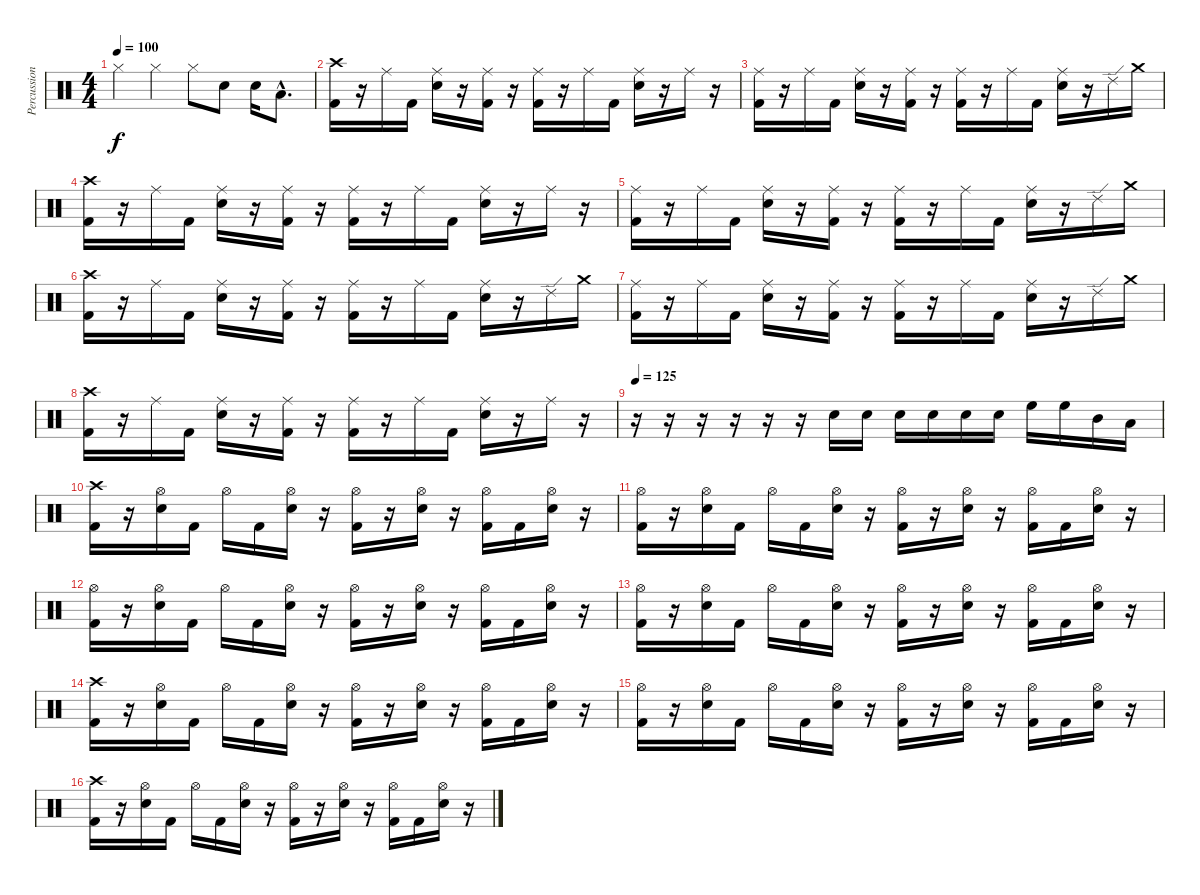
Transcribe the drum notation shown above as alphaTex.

\track ("Percussion" "Percussion") {instrument percussion}
\staff {score}
\articulation defaults
\ts (4 4)
\tempo 100
\clef neutral
\ks c "Hi-Hat (closed)".4{dy f} "Hi-Hat (closed)".4 "Hi-Hat (closed)".8 "Snare (hit) 2".8 "Snare (hit) 2".16 "Low Tom (hit)"{hac}.8{d}
|
("Kick (hit) 2" "Crash high (hit)").16 r.16 "Ride (middle)".16 "Kick (hit) 2".16 ("Snare (hit) 2" "Ride (middle)").16 r.16 ("Kick (hit) 2" "Ride (middle)").16 r.16 ("Kick (hit) 2" "Ride (middle)").16 r.16 "Ride (middle)".16 "Kick (hit) 2".16 ("Snare (hit) 2" "Ride (middle)").16 r.16 "Ride (middle)".16 r.16 |
("Kick (hit) 2" "Ride (middle)").16 r.16 "Ride (middle)".16 "Kick (hit) 2".16 ("Snare (hit) 2" "Ride (middle)").16 r.16 ("Kick (hit) 2" "Ride (middle)").16 r.16 ("Kick (hit) 2" "Ride (middle)").16 r.16 "Ride (middle)".16 "Kick (hit) 2".16 ("Snare (hit) 2" "Ride (middle)").16 r.16 "Ride (edge) 2".16 "Crash medium (hit)".16 |
("Kick (hit) 2" "Crash high (hit)").16 r.16 "Ride (middle)".16 "Kick (hit) 2".16 ("Snare (hit) 2" "Ride (middle)").16 r.16 ("Kick (hit) 2" "Ride (middle)").16 r.16 ("Kick (hit) 2" "Ride (middle)").16 r.16 "Ride (middle)".16 "Kick (hit) 2".16 ("Snare (hit) 2" "Ride (middle)").16 r.16 "Ride (middle)".16 r.16 |
("Kick (hit) 2" "Ride (middle)").16 r.16 "Ride (middle)".16 "Kick (hit) 2".16 ("Snare (hit) 2" "Ride (middle)").16 r.16 ("Kick (hit) 2" "Ride (middle)").16 r.16 ("Kick (hit) 2" "Ride (middle)").16 r.16 "Ride (middle)".16 "Kick (hit) 2".16 ("Snare (hit) 2" "Ride (middle)").16 r.16 "Ride (edge) 2".16 "Crash medium (hit)".16 |
("Kick (hit) 2" "Crash high (hit)").16 r.16 "Ride (middle)".16 "Kick (hit) 2".16 ("Snare (hit) 2" "Ride (middle)").16 r.16 ("Kick (hit) 2" "Ride (middle)").16 r.16 ("Kick (hit) 2" "Ride (middle)").16 r.16 "Ride (middle)".16 "Kick (hit) 2".16 ("Snare (hit) 2" "Ride (middle)").16 r.16 "Ride (edge) 2".16 "Crash medium (hit)".16 |
("Kick (hit) 2" "Ride (middle)").16 r.16 "Ride (middle)".16 "Kick (hit) 2".16 ("Snare (hit) 2" "Ride (middle)").16 r.16 ("Kick (hit) 2" "Ride (middle)").16 r.16 ("Kick (hit) 2" "Ride (middle)").16 r.16 "Ride (middle)".16 "Kick (hit) 2".16 ("Snare (hit) 2" "Ride (middle)").16 r.16 "Ride (edge) 2".16 "Crash medium (hit)".16 |
("Kick (hit) 2" "Crash high (hit)").16 r.16 "Ride (middle)".16 "Kick (hit) 2".16 ("Snare (hit) 2" "Ride (middle)").16 r.16 ("Kick (hit) 2" "Ride (middle)").16 r.16 ("Kick (hit) 2" "Ride (middle)").16 r.16 "Ride (middle)".16 "Kick (hit) 2".16 ("Snare (hit) 2" "Ride (middle)").16 r.16 "Ride (middle)".16 r.16 |
\tempo 125
r.16 r.16 r.16 r.16 r.16 r.16 "Snare (hit) 2".16 "Snare (hit) 2".16 "Snare (hit) 2".16 "Snare (hit) 2".16 "Snare (hit) 2".16 "Snare (hit) 2".16 "High Floor Tom (hit)".16 "High Floor Tom (hit)".16 "Mid Tom (hit)".16 "Low Tom (hit)".16 |
("Kick (hit) 2" "Crash high (hit)").16 r.16 ("Snare (hit) 2" "Hi-Hat (open)").16 "Kick (hit) 2".16 "Hi-Hat (open)".16 "Kick (hit) 2".16 ("Snare (hit) 2" "Hi-Hat (open)").16 r.16 ("Kick (hit) 2" "Hi-Hat (open)").16 r.16 ("Snare (hit) 2" "Hi-Hat (open)").16 r.16 ("Kick (hit) 2" "Hi-Hat (open)").16 "Kick (hit) 2".16 ("Snare (hit) 2" "Hi-Hat (open)").16 r.16 |
("Kick (hit) 2" "Hi-Hat (open)").16 r.16 ("Snare (hit) 2" "Hi-Hat (open)").16 "Kick (hit) 2".16 "Hi-Hat (open)".16 "Kick (hit) 2".16 ("Snare (hit) 2" "Hi-Hat (open)").16 r.16 ("Kick (hit) 2" "Hi-Hat (open)").16 r.16 ("Snare (hit) 2" "Hi-Hat (open)").16 r.16 ("Kick (hit) 2" "Hi-Hat (open)").16 "Kick (hit) 2".16 ("Snare (hit) 2" "Hi-Hat (open)").16 r.16 |
("Kick (hit) 2" "Hi-Hat (open)").16 r.16 ("Snare (hit) 2" "Hi-Hat (open)").16 "Kick (hit) 2".16 "Hi-Hat (open)".16 "Kick (hit) 2".16 ("Snare (hit) 2" "Hi-Hat (open)").16 r.16 ("Kick (hit) 2" "Hi-Hat (open)").16 r.16 ("Snare (hit) 2" "Hi-Hat (open)").16 r.16 ("Kick (hit) 2" "Hi-Hat (open)").16 "Kick (hit) 2".16 ("Snare (hit) 2" "Hi-Hat (open)").16 r.16 |
("Kick (hit) 2" "Hi-Hat (open)").16 r.16 ("Snare (hit) 2" "Hi-Hat (open)").16 "Kick (hit) 2".16 "Hi-Hat (open)".16 "Kick (hit) 2".16 ("Snare (hit) 2" "Hi-Hat (open)").16 r.16 ("Kick (hit) 2" "Hi-Hat (open)").16 r.16 ("Snare (hit) 2" "Hi-Hat (open)").16 r.16 ("Kick (hit) 2" "Hi-Hat (open)").16 "Kick (hit) 2".16 ("Snare (hit) 2" "Hi-Hat (open)").16 r.16 |
("Kick (hit) 2" "Crash high (hit)").16 r.16 ("Snare (hit) 2" "Hi-Hat (open)").16 "Kick (hit) 2".16 "Hi-Hat (open)".16 "Kick (hit) 2".16 ("Snare (hit) 2" "Hi-Hat (open)").16 r.16 ("Kick (hit) 2" "Hi-Hat (open)").16 r.16 ("Snare (hit) 2" "Hi-Hat (open)").16 r.16 ("Kick (hit) 2" "Hi-Hat (open)").16 "Kick (hit) 2".16 ("Snare (hit) 2" "Hi-Hat (open)").16 r.16 |
("Kick (hit) 2" "Hi-Hat (open)").16 r.16 ("Snare (hit) 2" "Hi-Hat (open)").16 "Kick (hit) 2".16 "Hi-Hat (open)".16 "Kick (hit) 2".16 ("Snare (hit) 2" "Hi-Hat (open)").16 r.16 ("Kick (hit) 2" "Hi-Hat (open)").16 r.16 ("Snare (hit) 2" "Hi-Hat (open)").16 r.16 ("Kick (hit) 2" "Hi-Hat (open)").16 "Kick (hit) 2".16 ("Snare (hit) 2" "Hi-Hat (open)").16 r.16 |
("Kick (hit) 2" "Crash high (hit)").16 r.16 ("Snare (hit) 2" "Hi-Hat (open)").16 "Kick (hit) 2".16 "Hi-Hat (open)".16 "Kick (hit) 2".16 ("Snare (hit) 2" "Hi-Hat (open)").16 r.16 ("Kick (hit) 2" "Hi-Hat (open)").16 r.16 ("Snare (hit) 2" "Hi-Hat (open)").16 r.16 ("Kick (hit) 2" "Hi-Hat (open)").16 "Kick (hit) 2".16 ("Snare (hit) 2" "Hi-Hat (open)").16 r.16
